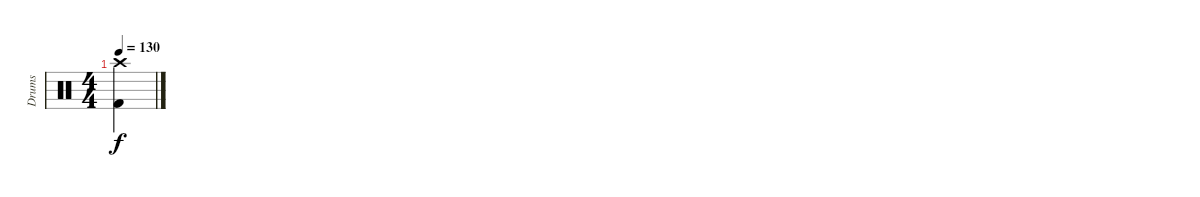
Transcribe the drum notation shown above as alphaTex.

\track ("Drums" "Drums") {instrument percussion}
\staff {score}
\articulation defaults
\ts (4 4)
\tempo 130
\clef neutral
\ks c
("Crash high (hit)" "Kick (hit) 2").4{dy f}
